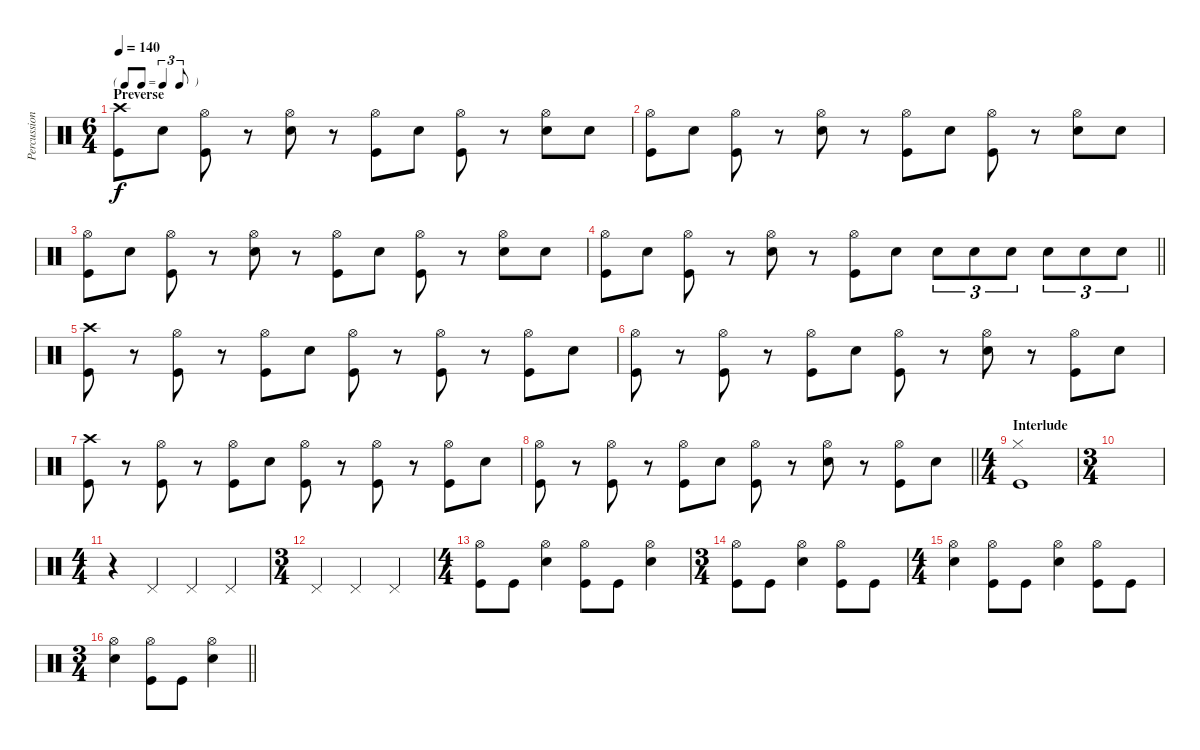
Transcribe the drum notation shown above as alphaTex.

\track ("Percussion" "Percussion") {instrument percussion}
\staff {score}
\articulation defaults
\ts (6 4)
\tf triplet8th
\section ("" "Preverse")
\tempo 140
\clef neutral
\ks c
("Crash high (hit)" "Kick (hit)").8{dy f} "Electric Snare (hit)".8 ("Hi-Hat (open)" "Kick (hit)").8 r.8 ("Hi-Hat (open)" "Electric Snare (hit)").8 r.8 ("Hi-Hat (open)" "Kick (hit)").8 "Electric Snare (hit)".8 ("Hi-Hat (open)" "Kick (hit)").8 r.8 ("Hi-Hat (open)" "Electric Snare (hit)").8 "Electric Snare (hit)".8 |
("Hi-Hat (open)" "Kick (hit)").8 "Electric Snare (hit)".8 ("Hi-Hat (open)" "Kick (hit)").8 r.8 ("Hi-Hat (open)" "Electric Snare (hit)").8 r.8 ("Hi-Hat (open)" "Kick (hit)").8 "Electric Snare (hit)".8 ("Hi-Hat (open)" "Kick (hit)").8 r.8 ("Hi-Hat (open)" "Electric Snare (hit)").8 "Electric Snare (hit)".8 |
("Hi-Hat (open)" "Kick (hit)").8 "Electric Snare (hit)".8 ("Hi-Hat (open)" "Kick (hit)").8 r.8 ("Hi-Hat (open)" "Electric Snare (hit)").8 r.8 ("Hi-Hat (open)" "Kick (hit)").8 "Electric Snare (hit)".8 ("Hi-Hat (open)" "Kick (hit)").8 r.8 ("Hi-Hat (open)" "Electric Snare (hit)").8 "Electric Snare (hit)".8 |
\barLineRight lightlight
("Hi-Hat (open)" "Kick (hit)").8 "Electric Snare (hit)".8 ("Hi-Hat (open)" "Kick (hit)").8 r.8 ("Hi-Hat (open)" "Electric Snare (hit)").8 r.8 ("Hi-Hat (open)" "Kick (hit)").8 "Electric Snare (hit)".8 "Electric Snare (hit)".8{tu (3 2)} "Electric Snare (hit)".8{tu (3 2)} "Electric Snare (hit)".8{tu (3 2)} "Electric Snare (hit)".8{tu (3 2)} "Electric Snare (hit)".8{tu (3 2)} "Electric Snare (hit)".8{tu (3 2)} |
("Crash high (hit)" "Kick (hit)").8 r.8 ("Hi-Hat (open)" "Kick (hit)").8 r.8 ("Hi-Hat (open)" "Kick (hit)").8 "Electric Snare (hit)".8 ("Hi-Hat (open)" "Kick (hit)").8 r.8 ("Hi-Hat (open)" "Kick (hit)").8 r.8 ("Hi-Hat (open)" "Kick (hit)").8 "Electric Snare (hit)".8 |
("Hi-Hat (open)" "Kick (hit)").8 r.8 ("Hi-Hat (open)" "Kick (hit)").8 r.8 ("Hi-Hat (open)" "Kick (hit)").8 "Electric Snare (hit)".8 ("Hi-Hat (open)" "Kick (hit)").8 r.8 ("Hi-Hat (open)" "Electric Snare (hit)").8 r.8 ("Hi-Hat (open)" "Kick (hit)").8 "Electric Snare (hit)".8 |
("Crash high (hit)" "Kick (hit)").8 r.8 ("Hi-Hat (open)" "Kick (hit)").8 r.8 ("Hi-Hat (open)" "Kick (hit)").8 "Electric Snare (hit)".8 ("Hi-Hat (open)" "Kick (hit)").8 r.8 ("Hi-Hat (open)" "Kick (hit)").8 r.8 ("Hi-Hat (open)" "Kick (hit)").8 "Electric Snare (hit)".8 |
\barLineRight lightlight
("Hi-Hat (open)" "Kick (hit)").8 r.8 ("Hi-Hat (open)" "Kick (hit)").8 r.8 ("Hi-Hat (open)" "Kick (hit)").8 "Electric Snare (hit)".8 ("Hi-Hat (open)" "Kick (hit)").8 r.8 ("Hi-Hat (open)" "Electric Snare (hit)").8 r.8 ("Hi-Hat (open)" "Kick (hit)").8 "Electric Snare (hit)".8 |
\ts (4 4)
\section ("" "Interlude")
("Hi-Hat (closed)" "Kick (hit)").1 |
\ts (3 4)
|
\ts (4 4)
r.4 "Pedal Hi-Hat (hit)".4 "Pedal Hi-Hat (hit)".4 "Pedal Hi-Hat (hit)".4 |
\ts (3 4)
"Pedal Hi-Hat (hit)".4 "Pedal Hi-Hat (hit)".4 "Pedal Hi-Hat (hit)".4 |
\ts (4 4)
("Hi-Hat (open)" "Kick (hit)").8 "Kick (hit)".8 ("Hi-Hat (open)" "Electric Snare (hit)").4 ("Hi-Hat (open)" "Kick (hit)").8 "Kick (hit)".8 ("Hi-Hat (open)" "Electric Snare (hit)").4 |
\ts (3 4)
("Hi-Hat (open)" "Kick (hit)").8 "Kick (hit)".8 ("Hi-Hat (open)" "Electric Snare (hit)").4 ("Hi-Hat (open)" "Kick (hit)").8 "Kick (hit)".8 |
\ts (4 4)
("Hi-Hat (open)" "Electric Snare (hit)").4 ("Hi-Hat (open)" "Kick (hit)").8 "Kick (hit)".8 ("Hi-Hat (open)" "Electric Snare (hit)").4 ("Hi-Hat (open)" "Kick (hit)").8 "Kick (hit)".8 |
\ts (3 4)
\barLineRight lightlight
("Hi-Hat (open)" "Electric Snare (hit)").4 ("Hi-Hat (open)" "Kick (hit)").8 "Kick (hit)".8 ("Hi-Hat (open)" "Electric Snare (hit)").4
